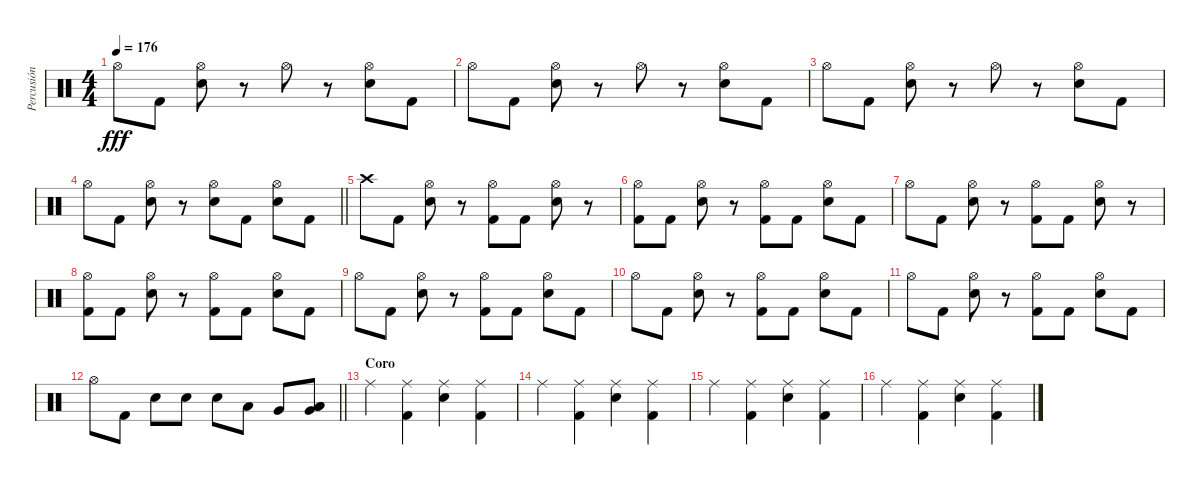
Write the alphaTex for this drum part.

\track ("Percusión" "Percusión") {instrument percussion}
\staff {score}
\articulation defaults
\ts (4 4)
\tempo 176
\clef neutral
\ks c "Hi-Hat (open)".8{dy fff} "Kick (hit) 2".8
("Hi-Hat (open)" "Electric Snare (hit)").8 r.8 "Hi-Hat (open)".8 r.8 ("Hi-Hat (open)" "Electric Snare (hit)").8 "Kick (hit) 2".8 |
"Hi-Hat (open)".8 "Kick (hit) 2".8 ("Hi-Hat (open)" "Electric Snare (hit)").8 r.8 "Hi-Hat (open)".8 r.8 ("Hi-Hat (open)" "Electric Snare (hit)").8 "Kick (hit) 2".8 |
"Hi-Hat (open)".8 "Kick (hit) 2".8 ("Hi-Hat (open)" "Electric Snare (hit)").8 r.8 "Hi-Hat (open)".8 r.8 ("Hi-Hat (open)" "Electric Snare (hit)").8 "Kick (hit) 2".8 |
\barLineRight lightlight "Hi-Hat (open)".8 "Kick (hit) 2".8
("Hi-Hat (open)" "Electric Snare (hit)").8 r.8 ("Hi-Hat (open)" "Electric Snare (hit)").8 "Kick (hit) 2".8 ("Hi-Hat (open)" "Electric Snare (hit)").8 "Kick (hit) 2".8 |
"Crash high (hit)".8 "Kick (hit) 2".8 ("Hi-Hat (open)" "Electric Snare (hit)").8 r.8 ("Hi-Hat (open)" "Kick (hit) 2").8 "Kick (hit) 2".8 ("Hi-Hat (open)" "Electric Snare (hit)").8 r.8 |
("Hi-Hat (open)" "Kick (hit) 2").8 "Kick (hit) 2".8 ("Hi-Hat (open)" "Electric Snare (hit)").8 r.8 ("Hi-Hat (open)" "Kick (hit) 2").8 "Kick (hit) 2".8 ("Hi-Hat (open)" "Electric Snare (hit)").8 "Kick (hit) 2".8 |
"Hi-Hat (open)".8 "Kick (hit) 2".8 ("Hi-Hat (open)" "Electric Snare (hit)").8 r.8 ("Hi-Hat (open)" "Kick (hit) 2").8 "Kick (hit) 2".8 ("Hi-Hat (open)" "Electric Snare (hit)").8 r.8 |
("Hi-Hat (open)" "Kick (hit) 2").8 "Kick (hit) 2".8 ("Hi-Hat (open)" "Electric Snare (hit)").8 r.8 ("Hi-Hat (open)" "Kick (hit) 2").8 "Kick (hit) 2".8 ("Hi-Hat (open)" "Electric Snare (hit)").8 "Kick (hit) 2".8 |
"Hi-Hat (open)".8 "Kick (hit) 2".8 ("Hi-Hat (open)" "Electric Snare (hit)").8 r.8 ("Hi-Hat (open)" "Kick (hit) 2").8 "Kick (hit) 2".8 ("Hi-Hat (open)" "Electric Snare (hit)").8 "Kick (hit) 2".8 |
"Hi-Hat (open)".8 "Kick (hit) 2".8 ("Hi-Hat (open)" "Electric Snare (hit)").8 r.8 ("Hi-Hat (open)" "Kick (hit) 2").8 "Kick (hit) 2".8 ("Hi-Hat (open)" "Electric Snare (hit)").8 "Kick (hit) 2".8 |
"Hi-Hat (open)".8 "Kick (hit) 2".8 ("Hi-Hat (open)" "Electric Snare (hit)").8 r.8 ("Hi-Hat (open)" "Kick (hit) 2").8 "Kick (hit) 2".8 ("Hi-Hat (open)" "Electric Snare (hit)").8 "Kick (hit) 2".8 |
\barLineRight lightlight "Hi-Hat (open)".8 "Kick (hit) 2".8 "Electric Snare (hit)".8 "Electric Snare (hit)".8 "Electric Snare (hit)".8 "Low Tom (hit)".8 "Very Low Tom (hit)".8
("Very Low Tom (hit)" "Low Floor Tom (hit)" "Low Floor Tom (hit)").8 |
\section ("" "Coro")
"Ride (middle)".4 ("Ride (middle)" "Kick (hit) 2").4 ("Ride (middle)" "Electric Snare (hit)").4 ("Ride (middle)" "Kick (hit) 2").4 |
"Ride (middle)".4 ("Ride (middle)" "Kick (hit) 2").4 ("Ride (middle)" "Electric Snare (hit)").4 ("Ride (middle)" "Kick (hit) 2").4 |
"Ride (middle)".4 ("Ride (middle)" "Kick (hit) 2").4 ("Ride (middle)" "Electric Snare (hit)").4 ("Ride (middle)" "Kick (hit) 2").4 |
"Ride (middle)".4 ("Ride (middle)" "Kick (hit) 2").4 ("Ride (middle)" "Electric Snare (hit)").4 ("Ride (middle)" "Kick (hit) 2").4
